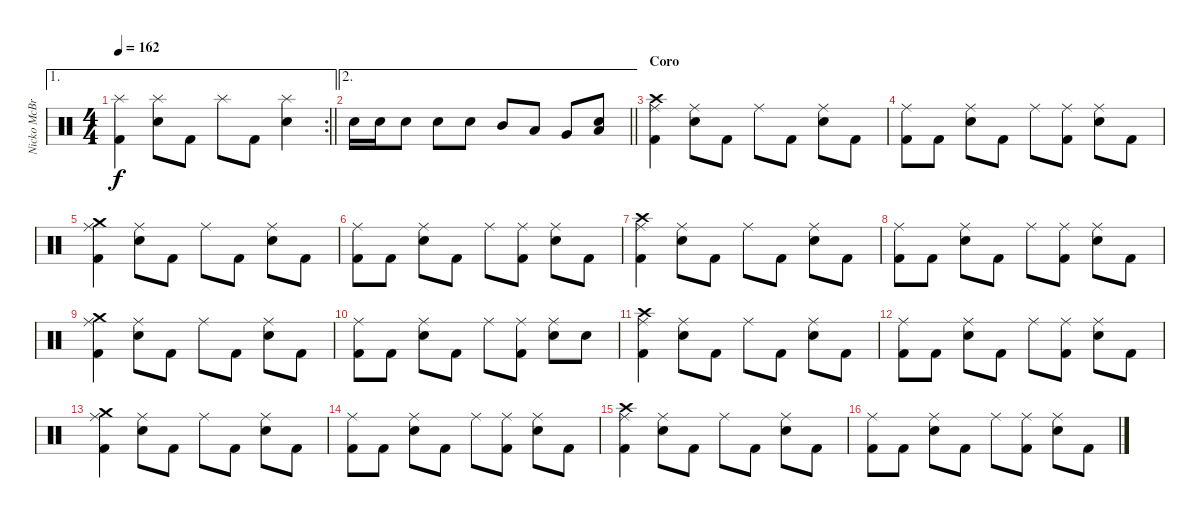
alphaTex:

\track ("Nicko McBrain" "Nicko McBr") {instrument percussion}
\staff {score}
\articulation defaults
\ae 1
\rc 2
\ts (4 4)
\tempo 162
\clef neutral
\barLineRight lightlight
\ks c
("Kick (hit) 2" "Splash (hit)").4{dy f} ("Electric Snare (hit)" "Splash (hit)").8 "Kick (hit) 2".8 "Splash (hit)".8 "Kick (hit) 2".8 ("Electric Snare (hit)" "Splash (hit)").4 |
\ae 2
\barLineRight lightlight "Electric Snare (hit)".16 "Electric Snare (hit)".16 "Electric Snare (hit)".8 "Electric Snare (hit)".8 "Electric Snare (hit)".8 "Mid Tom (hit)".8 "Low Tom (hit)".8 "Very Low Tom (hit)".8
("Low Floor Tom (hit)" "Electric Snare (hit)").8 |
\section ("" "Coro")
("Kick (hit) 2" "Ride (middle)" "Crash high (hit)").4 ("Electric Snare (hit)" "Ride (middle)").8 "Kick (hit) 2".8 "Ride (middle)".8 "Kick (hit) 2".8 ("Electric Snare (hit)" "Ride (middle)").8 "Kick (hit) 2".8 |
("Kick (hit) 2" "Ride (middle)").8 "Kick (hit) 2".8 ("Electric Snare (hit)" "Ride (middle)").8 "Kick (hit) 2".8 "Ride (middle)".8 ("Kick (hit) 2" "Ride (middle)").8 ("Electric Snare (hit)" "Ride (middle)").8 "Kick (hit) 2".8 |
("Kick (hit) 2" "Ride (middle)" "Crash medium (hit)").4 ("Electric Snare (hit)" "Ride (middle)").8 "Kick (hit) 2".8 "Ride (middle)".8 "Kick (hit) 2".8 ("Electric Snare (hit)" "Ride (middle)").8 "Kick (hit) 2".8 |
("Kick (hit) 2" "Ride (middle)").8 "Kick (hit) 2".8 ("Electric Snare (hit)" "Ride (middle)").8 "Kick (hit) 2".8 "Ride (middle)".8 ("Kick (hit) 2" "Ride (middle)").8 ("Electric Snare (hit)" "Ride (middle)").8 "Kick (hit) 2".8 |
("Kick (hit) 2" "Ride (middle)" "Crash high (hit)").4 ("Electric Snare (hit)" "Ride (middle)").8 "Kick (hit) 2".8 "Ride (middle)".8 "Kick (hit) 2".8 ("Electric Snare (hit)" "Ride (middle)").8 "Kick (hit) 2".8 |
("Kick (hit) 2" "Ride (middle)").8 "Kick (hit) 2".8 ("Electric Snare (hit)" "Ride (middle)").8 "Kick (hit) 2".8 "Ride (middle)".8 ("Kick (hit) 2" "Ride (middle)").8 ("Electric Snare (hit)" "Ride (middle)").8 "Kick (hit) 2".8 |
("Kick (hit) 2" "Ride (middle)" "Crash medium (hit)").4 ("Electric Snare (hit)" "Ride (middle)").8 "Kick (hit) 2".8 "Ride (middle)".8 "Kick (hit) 2".8 ("Electric Snare (hit)" "Ride (middle)").8 "Kick (hit) 2".8 |
("Kick (hit) 2" "Ride (middle)").8 "Kick (hit) 2".8 ("Electric Snare (hit)" "Ride (middle)").8 "Kick (hit) 2".8 "Ride (middle)".8 ("Kick (hit) 2" "Ride (middle)").8 ("Electric Snare (hit)" "Ride (middle)").8 "Electric Snare (hit)".8 |
("Kick (hit) 2" "Ride (middle)" "Crash high (hit)").4 ("Electric Snare (hit)" "Ride (middle)").8 "Kick (hit) 2".8 "Ride (middle)".8 "Kick (hit) 2".8 ("Electric Snare (hit)" "Ride (middle)").8 "Kick (hit) 2".8 |
("Kick (hit) 2" "Ride (middle)").8 "Kick (hit) 2".8 ("Electric Snare (hit)" "Ride (middle)").8 "Kick (hit) 2".8 "Ride (middle)".8 ("Kick (hit) 2" "Ride (middle)").8 ("Electric Snare (hit)" "Ride (middle)").8 "Kick (hit) 2".8 |
("Kick (hit) 2" "Ride (middle)" "Crash medium (hit)").4 ("Electric Snare (hit)" "Ride (middle)").8 "Kick (hit) 2".8 "Ride (middle)".8 "Kick (hit) 2".8 ("Electric Snare (hit)" "Ride (middle)").8 "Kick (hit) 2".8 |
("Kick (hit) 2" "Ride (middle)").8 "Kick (hit) 2".8 ("Electric Snare (hit)" "Ride (middle)").8 "Kick (hit) 2".8 "Ride (middle)".8 ("Kick (hit) 2" "Ride (middle)").8 ("Electric Snare (hit)" "Ride (middle)").8 "Kick (hit) 2".8 |
("Kick (hit) 2" "Ride (middle)" "Crash high (hit)").4 ("Electric Snare (hit)" "Ride (middle)").8 "Kick (hit) 2".8 "Ride (middle)".8 "Kick (hit) 2".8 ("Electric Snare (hit)" "Ride (middle)").8 "Kick (hit) 2".8 |
("Kick (hit) 2" "Ride (middle)").8 "Kick (hit) 2".8 ("Electric Snare (hit)" "Ride (middle)").8 "Kick (hit) 2".8 "Ride (middle)".8 ("Kick (hit) 2" "Ride (middle)").8 ("Electric Snare (hit)" "Ride (middle)").8 "Kick (hit) 2".8
